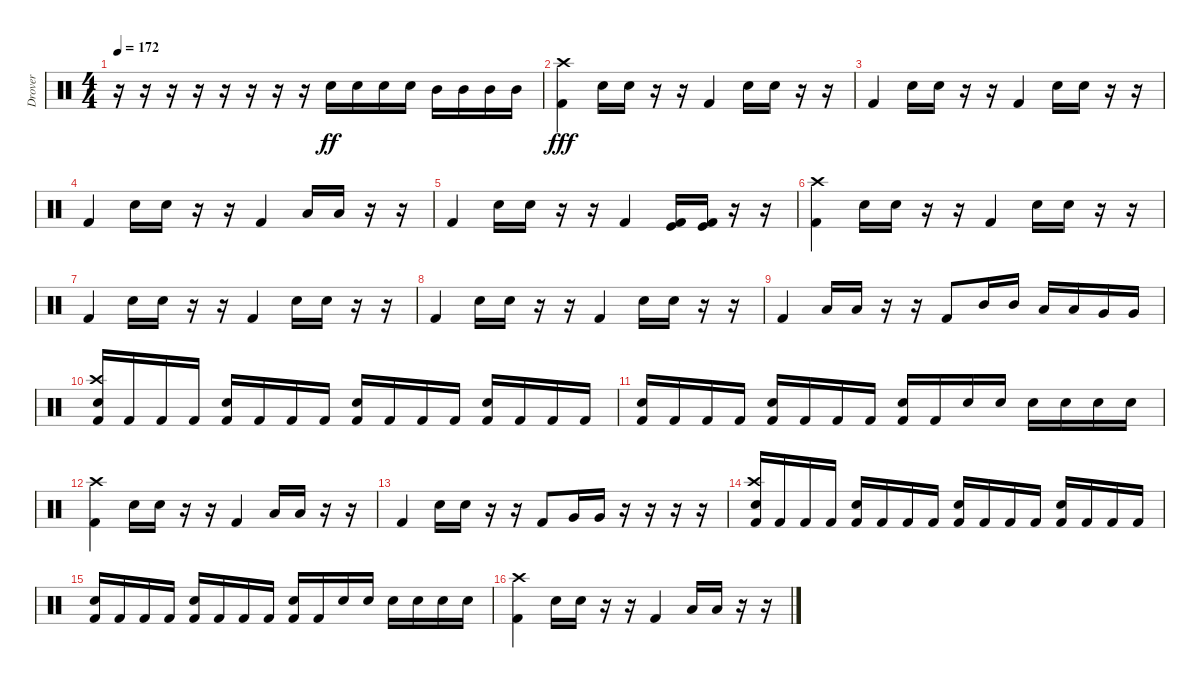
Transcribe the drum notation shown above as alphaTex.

\track ("Drover" "Drover") {instrument percussion}
\staff {score}
\articulation defaults
\ts (4 4)
\tempo 172
\clef neutral
\ks c
r.16{dy fff} r.16 r.16 r.16 r.16 r.16 r.16 r.16 "Electric Snare (hit)".16{dy ff} "Electric Snare (hit)".16 "Electric Snare (hit)".16 "Electric Snare (hit)".16 "Mid Tom (hit)".16 "Mid Tom (hit)".16 "Mid Tom (hit)".16 "Mid Tom (hit)".16 |
("Crash high (hit)" "Kick (hit) 2").4{dy fff} "Electric Snare (hit)".16 "Electric Snare (hit)".16 r.16 r.16 "Kick (hit) 2".4 "Electric Snare (hit)".16 "Electric Snare (hit)".16 r.16 r.16 |
"Kick (hit) 2".4 "Electric Snare (hit)".16 "Electric Snare (hit)".16 r.16 r.16 "Kick (hit) 2".4 "Electric Snare (hit)".16 "Electric Snare (hit)".16 r.16 r.16 |
"Kick (hit) 2".4 "Electric Snare (hit)".16 "Electric Snare (hit)".16 r.16 r.16 "Kick (hit) 2".4 "Low Tom (hit)".16 "Low Tom (hit)".16 r.16 r.16 |
"Kick (hit) 2".4 "Electric Snare (hit)".16 "Electric Snare (hit)".16 r.16 r.16 "Kick (hit) 2".4 ("Kick (hit)" "Kick (hit) 2").16 ("Kick (hit)" "Kick (hit) 2").16 r.16 r.16 |
("Crash high (hit)" "Kick (hit) 2").4 "Electric Snare (hit)".16 "Electric Snare (hit)".16 r.16 r.16 "Kick (hit) 2".4 "Electric Snare (hit)".16 "Electric Snare (hit)".16 r.16 r.16 |
"Kick (hit) 2".4 "Electric Snare (hit)".16 "Electric Snare (hit)".16 r.16 r.16 "Kick (hit) 2".4 "Electric Snare (hit)".16 "Electric Snare (hit)".16 r.16 r.16 |
"Kick (hit) 2".4 "Electric Snare (hit)".16 "Electric Snare (hit)".16 r.16 r.16 "Kick (hit) 2".4 "Electric Snare (hit)".16 "Electric Snare (hit)".16 r.16 r.16 |
"Kick (hit) 2".4 "Low Tom (hit)".16 "Low Tom (hit)".16 r.16 r.16 "Kick (hit) 2".8 "Mid Tom (hit)".16 "Mid Tom (hit)".16 "Low Tom (hit)".16 "Low Tom (hit)".16 "Very Low Tom (hit)".16 "Very Low Tom (hit)".16 |
("Crash high (hit)" "Electric Snare (hit)" "Kick (hit) 2").16 "Kick (hit) 2".16 "Kick (hit) 2".16 "Kick (hit) 2".16 ("Electric Snare (hit)" "Kick (hit) 2").16 "Kick (hit) 2".16 "Kick (hit) 2".16 "Kick (hit) 2".16 ("Electric Snare (hit)" "Kick (hit) 2").16 "Kick (hit) 2".16 "Kick (hit) 2".16 "Kick (hit) 2".16 ("Electric Snare (hit)" "Kick (hit) 2").16 "Kick (hit) 2".16 "Kick (hit) 2".16 "Kick (hit) 2".16 |
("Electric Snare (hit)" "Kick (hit) 2").16 "Kick (hit) 2".16 "Kick (hit) 2".16 "Kick (hit) 2".16 ("Electric Snare (hit)" "Kick (hit) 2").16 "Kick (hit) 2".16 "Kick (hit) 2".16 "Kick (hit) 2".16 ("Electric Snare (hit)" "Kick (hit) 2").16 "Kick (hit) 2".16 "Electric Snare (hit)".16 "Electric Snare (hit)".16 "Electric Snare (hit)".16 "Electric Snare (hit)".16 "Electric Snare (hit)".16 "Electric Snare (hit)".16 |
("Crash high (hit)" "Kick (hit) 2").4 "Electric Snare (hit)".16 "Electric Snare (hit)".16 r.16 r.16 "Kick (hit) 2".4 "Low Tom (hit)".16 "Low Tom (hit)".16 r.16 r.16 |
"Kick (hit) 2".4 "Electric Snare (hit)".16 "Electric Snare (hit)".16 r.16 r.16 "Kick (hit) 2".8 "Very Low Tom (hit)".16 "Very Low Tom (hit)".16 r.16 r.16 r.16 r.16 |
("Crash high (hit)" "Electric Snare (hit)" "Kick (hit) 2").16 "Kick (hit) 2".16 "Kick (hit) 2".16 "Kick (hit) 2".16 ("Electric Snare (hit)" "Kick (hit) 2").16 "Kick (hit) 2".16 "Kick (hit) 2".16 "Kick (hit) 2".16 ("Electric Snare (hit)" "Kick (hit) 2").16 "Kick (hit) 2".16 "Kick (hit) 2".16 "Kick (hit) 2".16 ("Electric Snare (hit)" "Kick (hit) 2").16 "Kick (hit) 2".16 "Kick (hit) 2".16 "Kick (hit) 2".16 |
("Electric Snare (hit)" "Kick (hit) 2").16 "Kick (hit) 2".16 "Kick (hit) 2".16 "Kick (hit) 2".16 ("Electric Snare (hit)" "Kick (hit) 2").16 "Kick (hit) 2".16 "Kick (hit) 2".16 "Kick (hit) 2".16 ("Electric Snare (hit)" "Kick (hit) 2").16 "Kick (hit) 2".16 "Electric Snare (hit)".16 "Electric Snare (hit)".16 "Electric Snare (hit)".16 "Electric Snare (hit)".16 "Electric Snare (hit)".16 "Electric Snare (hit)".16 |
("Crash high (hit)" "Kick (hit) 2").4 "Electric Snare (hit)".16 "Electric Snare (hit)".16 r.16 r.16 "Kick (hit) 2".4 "Low Tom (hit)".16 "Low Tom (hit)".16 r.16 r.16
